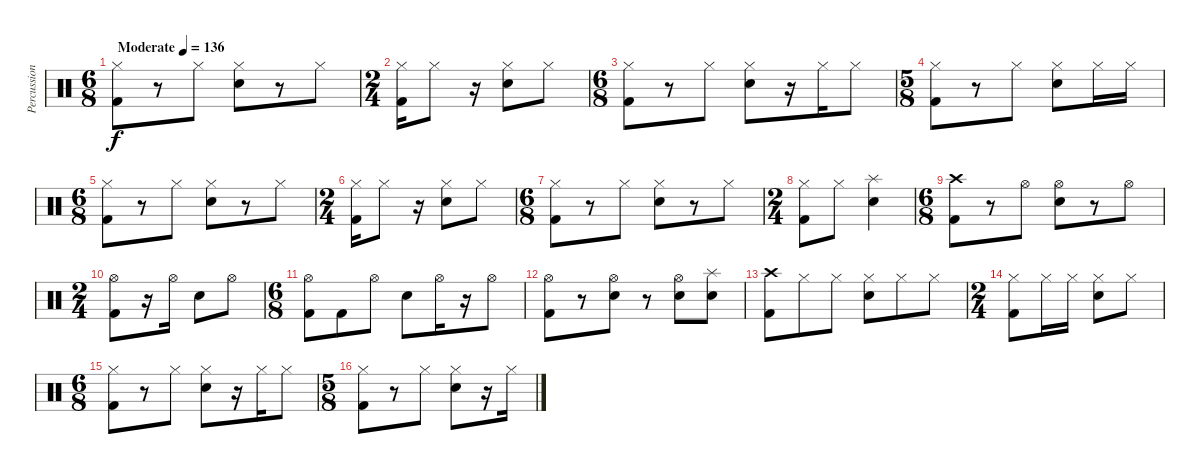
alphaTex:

\track ("Percussion" "Percussion") {instrument percussion}
\staff {score}
\articulation defaults
\ts (6 8)
\tempo (136 "Moderate")
\clef neutral
\ks c
("Hi-Hat (closed)" "Kick (hit) 2").8{dy f} r.8 "Hi-Hat (closed)".8 ("Hi-Hat (closed)" "Snare (hit) 2").8 r.8 "Hi-Hat (closed)".8 |
\ts (2 4)
("Hi-Hat (closed)" "Kick (hit) 2").16 "Hi-Hat (closed)".8 r.16 ("Hi-Hat (closed)" "Snare (hit) 2").8 "Hi-Hat (closed)".8 |
\ts (6 8)
("Hi-Hat (closed)" "Kick (hit) 2").8 r.8 "Hi-Hat (closed)".8 ("Hi-Hat (closed)" "Snare (hit) 2").8 r.16 "Hi-Hat (closed)".16 "Hi-Hat (closed)".8 |
\ts (5 8)
("Hi-Hat (closed)" "Kick (hit) 2").8 r.8 "Hi-Hat (closed)".8 ("Hi-Hat (closed)" "Snare (hit) 2").8 "Hi-Hat (closed)".16 "Hi-Hat (closed)".16 |
\ts (6 8)
("Hi-Hat (closed)" "Kick (hit) 2").8 r.8 "Hi-Hat (closed)".8 ("Hi-Hat (closed)" "Snare (hit) 2").8 r.8 "Hi-Hat (closed)".8 |
\ts (2 4)
("Hi-Hat (closed)" "Kick (hit) 2").16 "Hi-Hat (closed)".8 r.16 ("Hi-Hat (closed)" "Snare (hit) 2").8 "Hi-Hat (closed)".8 |
\ts (6 8)
("Hi-Hat (closed)" "Kick (hit) 2").8 r.8 "Hi-Hat (closed)".8 ("Hi-Hat (closed)" "Snare (hit) 2").8 r.8 "Hi-Hat (closed)".8 |
\ts (2 4)
("Hi-Hat (closed)" "Kick (hit) 2").8 "Hi-Hat (closed)".8 ("Splash (hit)" "Snare (hit) 2").4 |
\ts (6 8)
("Crash high (hit)" "Kick (hit) 2").8 r.8 "Hi-Hat (open)".8 ("Hi-Hat (open)" "Snare (hit) 2").8 r.8 "Hi-Hat (open)".8 |
\ts (2 4)
("Hi-Hat (open)" "Kick (hit) 2").8 r.16 "Hi-Hat (open)".16 "Snare (hit) 2".8 "Hi-Hat (open)".8 |
\ts (6 8)
("Hi-Hat (open)" "Kick (hit) 2").8 "Kick (hit) 2".8 "Hi-Hat (open)".8 "Snare (hit) 2".8 "Hi-Hat (open)".16 r.16 "Hi-Hat (open)".8 |
("Hi-Hat (open)" "Kick (hit) 2").8 r.8 ("Hi-Hat (open)" "Snare (hit) 2").8 r.8 ("Hi-Hat (open)" "Snare (hit) 2").8 ("Splash (hit)" "Snare (hit) 2").8 |
("Crash high (hit)" "Kick (hit) 2").8 "Hi-Hat (closed)".8 "Hi-Hat (closed)".8 ("Hi-Hat (closed)" "Snare (hit) 2").8 "Hi-Hat (closed)".8 "Hi-Hat (closed)".8 |
\ts (2 4)
("Hi-Hat (closed)" "Kick (hit) 2").8 "Hi-Hat (closed)".16 "Hi-Hat (closed)".16 ("Hi-Hat (closed)" "Snare (hit) 2").8 "Hi-Hat (closed)".8 |
\ts (6 8)
("Hi-Hat (closed)" "Kick (hit) 2").8 r.8 "Hi-Hat (closed)".8 ("Hi-Hat (closed)" "Snare (hit) 2").8 r.16 "Hi-Hat (closed)".16 "Hi-Hat (closed)".8 |
\ts (5 8)
("Hi-Hat (closed)" "Kick (hit) 2").8 r.8 "Hi-Hat (closed)".8 ("Hi-Hat (closed)" "Snare (hit) 2").8 r.16 "Hi-Hat (closed)".16
